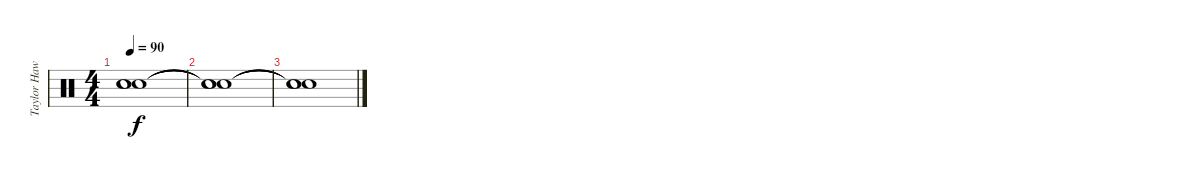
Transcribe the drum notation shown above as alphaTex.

\track ("Taylor Hawkins " "Taylor Haw") {instrument percussion}
\staff {score}
\articulation defaults
\ts (4 4)
\tempo 90
\clef neutral
\ks c
("Snare (hit)"{t} "Snare (hit)"{t} "Snare (hit)"{t}).1{dy f} |
("Snare (hit)"{t} "Snare (hit)"{t} "Snare (hit)"{t}).1 |
("Snare (hit)"{t} "Snare (hit)"{t} "Snare (hit)"{t}).1
